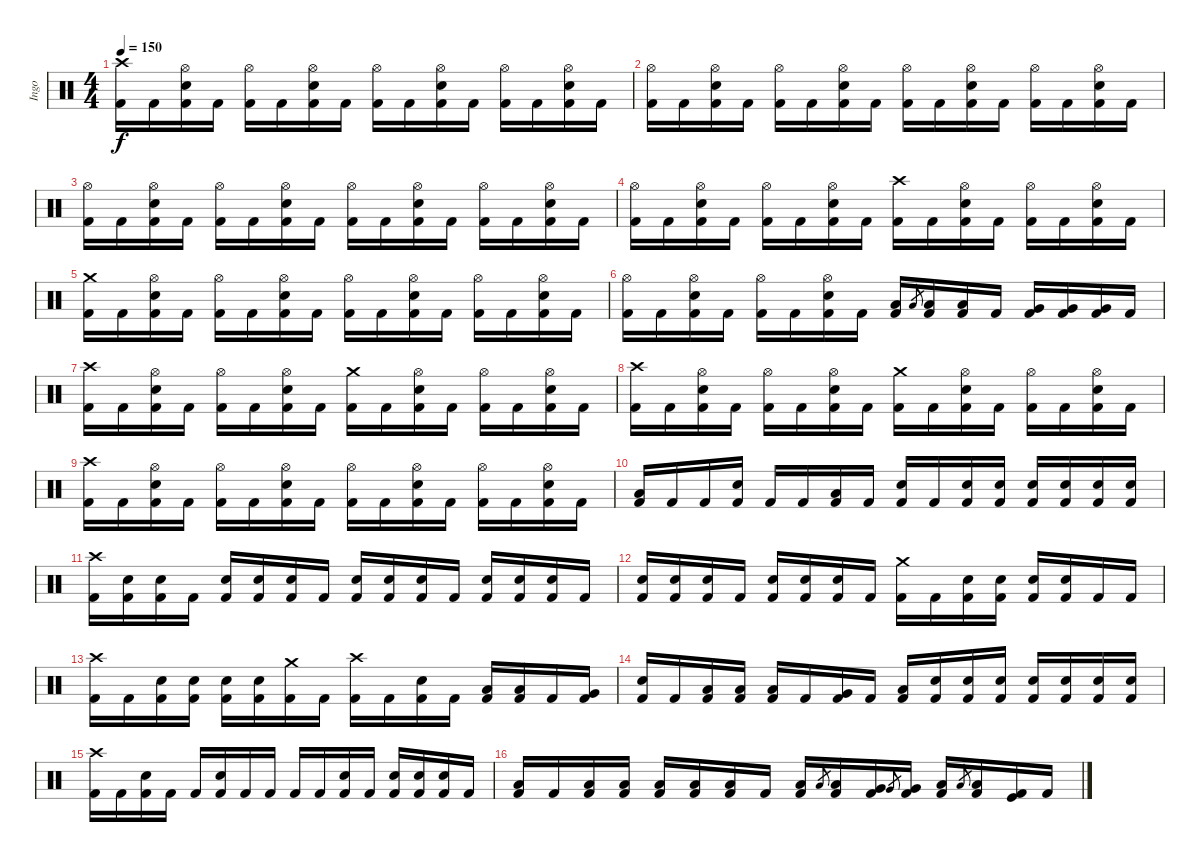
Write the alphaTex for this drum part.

\track ("Ingo" "Ingo") {instrument percussion}
\staff {score}
\articulation defaults
\ts (4 4)
\tempo 150
\clef neutral
\ks c
("Crash high (hit)" "Kick (hit) 2").16{dy f} "Kick (hit) 2".16 ("Hi-Hat (open)" "Electric Snare (hit)" "Kick (hit) 2").16 "Kick (hit) 2".16 ("Hi-Hat (open)" "Kick (hit) 2").16 "Kick (hit) 2".16 ("Hi-Hat (open)" "Electric Snare (hit)" "Kick (hit) 2").16 "Kick (hit) 2".16 ("Hi-Hat (open)" "Kick (hit) 2").16 "Kick (hit) 2".16 ("Hi-Hat (open)" "Electric Snare (hit)" "Kick (hit) 2").16 "Kick (hit) 2".16 ("Hi-Hat (open)" "Kick (hit) 2").16 "Kick (hit) 2".16 ("Hi-Hat (open)" "Electric Snare (hit)" "Kick (hit) 2").16 "Kick (hit) 2".16 |
("Hi-Hat (open)" "Kick (hit) 2").16 "Kick (hit) 2".16 ("Hi-Hat (open)" "Electric Snare (hit)" "Kick (hit) 2").16 "Kick (hit) 2".16 ("Hi-Hat (open)" "Kick (hit) 2").16 "Kick (hit) 2".16 ("Hi-Hat (open)" "Electric Snare (hit)" "Kick (hit) 2").16 "Kick (hit) 2".16 ("Hi-Hat (open)" "Kick (hit) 2").16 "Kick (hit) 2".16 ("Hi-Hat (open)" "Electric Snare (hit)" "Kick (hit) 2").16 "Kick (hit) 2".16 ("Hi-Hat (open)" "Kick (hit) 2").16 "Kick (hit) 2".16 ("Hi-Hat (open)" "Electric Snare (hit)" "Kick (hit) 2").16 "Kick (hit) 2".16 |
("Hi-Hat (open)" "Kick (hit) 2").16 "Kick (hit) 2".16 ("Hi-Hat (open)" "Electric Snare (hit)" "Kick (hit) 2").16 "Kick (hit) 2".16 ("Hi-Hat (open)" "Kick (hit) 2").16 "Kick (hit) 2".16 ("Hi-Hat (open)" "Electric Snare (hit)" "Kick (hit) 2").16 "Kick (hit) 2".16 ("Hi-Hat (open)" "Kick (hit) 2").16 "Kick (hit) 2".16 ("Hi-Hat (open)" "Electric Snare (hit)" "Kick (hit) 2").16 "Kick (hit) 2".16 ("Hi-Hat (open)" "Kick (hit) 2").16 "Kick (hit) 2".16 ("Hi-Hat (open)" "Electric Snare (hit)" "Kick (hit) 2").16 "Kick (hit) 2".16 |
("Hi-Hat (open)" "Kick (hit) 2").16 "Kick (hit) 2".16 ("Hi-Hat (open)" "Electric Snare (hit)" "Kick (hit) 2").16 "Kick (hit) 2".16 ("Hi-Hat (open)" "Kick (hit) 2").16 "Kick (hit) 2".16 ("Hi-Hat (open)" "Electric Snare (hit)" "Kick (hit) 2").16 "Kick (hit) 2".16 ("Crash high (hit)" "Kick (hit) 2").16 "Kick (hit) 2".16 ("Hi-Hat (open)" "Electric Snare (hit)" "Kick (hit) 2").16 "Kick (hit) 2".16 ("Hi-Hat (open)" "Kick (hit) 2").16 "Kick (hit) 2".16 ("Hi-Hat (open)" "Electric Snare (hit)" "Kick (hit) 2").16 "Kick (hit) 2".16 |
("Crash medium (hit)" "Kick (hit) 2").16 "Kick (hit) 2".16 ("Hi-Hat (open)" "Electric Snare (hit)" "Kick (hit) 2").16 "Kick (hit) 2".16 ("Hi-Hat (open)" "Kick (hit) 2").16 "Kick (hit) 2".16 ("Hi-Hat (open)" "Electric Snare (hit)" "Kick (hit) 2").16 "Kick (hit) 2".16 ("Hi-Hat (open)" "Kick (hit) 2").16 "Kick (hit) 2".16 ("Hi-Hat (open)" "Electric Snare (hit)" "Kick (hit) 2").16 "Kick (hit) 2".16 ("Hi-Hat (open)" "Kick (hit) 2").16 "Kick (hit) 2".16 ("Hi-Hat (open)" "Electric Snare (hit)" "Kick (hit) 2").16 "Kick (hit) 2".16 |
("Hi-Hat (open)" "Kick (hit) 2").16 "Kick (hit) 2".16 ("Hi-Hat (open)" "Electric Snare (hit)" "Kick (hit) 2").16 "Kick (hit) 2".16 ("Hi-Hat (open)" "Kick (hit) 2").16 "Kick (hit) 2".16 ("Hi-Hat (open)" "Electric Snare (hit)" "Kick (hit) 2").16 "Kick (hit) 2".16 ("Low Tom (hit)" "Kick (hit) 2").16 "Low Tom (hit)".8{gr} ("Low Tom (hit)" "Kick (hit) 2").16 ("Low Tom (hit)" "Kick (hit) 2").16 "Kick (hit) 2".16 ("Very Low Tom (hit)" "Kick (hit) 2").16 ("Very Low Tom (hit)" "Kick (hit) 2").16 ("Very Low Tom (hit)" "Kick (hit) 2").16 "Kick (hit) 2".16 |
("Crash high (hit)" "Kick (hit) 2").16 "Kick (hit) 2".16 ("Hi-Hat (open)" "Electric Snare (hit)" "Kick (hit) 2").16 "Kick (hit) 2".16 ("Hi-Hat (open)" "Kick (hit) 2").16 "Kick (hit) 2".16 ("Hi-Hat (open)" "Electric Snare (hit)" "Kick (hit) 2").16 "Kick (hit) 2".16 ("Crash medium (hit)" "Kick (hit) 2").16 "Kick (hit) 2".16 ("Hi-Hat (open)" "Electric Snare (hit)" "Kick (hit) 2").16 "Kick (hit) 2".16 ("Hi-Hat (open)" "Kick (hit) 2").16 "Kick (hit) 2".16 ("Hi-Hat (open)" "Electric Snare (hit)" "Kick (hit) 2").16 "Kick (hit) 2".16 |
("Crash high (hit)" "Kick (hit) 2").16 "Kick (hit) 2".16 ("Hi-Hat (open)" "Electric Snare (hit)" "Kick (hit) 2").16 "Kick (hit) 2".16 ("Hi-Hat (open)" "Kick (hit) 2").16 "Kick (hit) 2".16 ("Hi-Hat (open)" "Electric Snare (hit)" "Kick (hit) 2").16 "Kick (hit) 2".16 ("Crash medium (hit)" "Kick (hit) 2").16 "Kick (hit) 2".16 ("Hi-Hat (open)" "Electric Snare (hit)" "Kick (hit) 2").16 "Kick (hit) 2".16 ("Hi-Hat (open)" "Kick (hit) 2").16 "Kick (hit) 2".16 ("Hi-Hat (open)" "Electric Snare (hit)" "Kick (hit) 2").16 "Kick (hit) 2".16 |
("Crash high (hit)" "Kick (hit) 2").16 "Kick (hit) 2".16 ("Hi-Hat (open)" "Electric Snare (hit)" "Kick (hit) 2").16 "Kick (hit) 2".16 ("Hi-Hat (open)" "Kick (hit) 2").16 "Kick (hit) 2".16 ("Hi-Hat (open)" "Electric Snare (hit)" "Kick (hit) 2").16 "Kick (hit) 2".16 ("Hi-Hat (open)" "Kick (hit) 2").16 "Kick (hit) 2".16 ("Hi-Hat (open)" "Electric Snare (hit)" "Kick (hit) 2").16 "Kick (hit) 2".16 ("Hi-Hat (open)" "Kick (hit) 2").16 "Kick (hit) 2".16 ("Hi-Hat (open)" "Electric Snare (hit)" "Kick (hit) 2").16 "Kick (hit) 2".16 |
("Low Floor Tom (hit)" "Kick (hit) 2").16 "Kick (hit) 2".16 "Kick (hit) 2".16 ("Electric Snare (hit)" "Kick (hit) 2").16 "Kick (hit) 2".16 "Kick (hit) 2".16 ("Low Floor Tom (hit)" "Kick (hit) 2").16 "Kick (hit) 2".16 ("Electric Snare (hit)" "Kick (hit) 2").16 "Kick (hit) 2".16 ("Electric Snare (hit)" "Kick (hit) 2").16 ("Electric Snare (hit)" "Kick (hit) 2").16 ("Electric Snare (hit)" "Kick (hit) 2").16 ("Electric Snare (hit)" "Kick (hit) 2").16 ("Electric Snare (hit)" "Kick (hit) 2").16 ("Electric Snare (hit)" "Kick (hit) 2").16 |
("Crash high (hit)" "Kick (hit) 2").16 ("Electric Snare (hit)" "Kick (hit) 2").16 ("Electric Snare (hit)" "Kick (hit) 2").16 "Kick (hit) 2".16 ("Electric Snare (hit)" "Kick (hit) 2").16 ("Electric Snare (hit)" "Kick (hit) 2").16 ("Electric Snare (hit)" "Kick (hit) 2").16 "Kick (hit) 2".16 ("Electric Snare (hit)" "Kick (hit) 2").16 ("Electric Snare (hit)" "Kick (hit) 2").16 ("Electric Snare (hit)" "Kick (hit) 2").16 "Kick (hit) 2".16 ("Electric Snare (hit)" "Kick (hit) 2").16 ("Electric Snare (hit)" "Kick (hit) 2").16 ("Electric Snare (hit)" "Kick (hit) 2").16 "Kick (hit) 2".16 |
("Electric Snare (hit)" "Kick (hit) 2").16 ("Electric Snare (hit)" "Kick (hit) 2").16 ("Electric Snare (hit)" "Kick (hit) 2").16 "Kick (hit) 2".16 ("Electric Snare (hit)" "Kick (hit) 2").16 ("Electric Snare (hit)" "Kick (hit) 2").16 ("Electric Snare (hit)" "Kick (hit) 2").16 "Kick (hit) 2".16 ("Crash medium (hit)" "Kick (hit) 2").16 "Kick (hit) 2".16 ("Electric Snare (hit)" "Kick (hit) 2").16 ("Electric Snare (hit)" "Kick (hit) 2").16 ("Electric Snare (hit)" "Kick (hit) 2").16 ("Electric Snare (hit)" "Kick (hit) 2").16 "Kick (hit) 2".16 "Kick (hit) 2".16 |
("Crash high (hit)" "Kick (hit) 2").16 "Kick (hit) 2".16 ("Electric Snare (hit)" "Kick (hit) 2").16 ("Electric Snare (hit)" "Kick (hit) 2").16 ("Electric Snare (hit)" "Kick (hit) 2").16 ("Electric Snare (hit)" "Kick (hit) 2").16 ("Crash medium (hit)" "Kick (hit) 2").16 "Kick (hit) 2".16 ("Crash high (hit)" "Kick (hit) 2").16 "Kick (hit) 2".16 ("Electric Snare (hit)" "Kick (hit) 2").16 "Kick (hit) 2".16 ("Low Tom (hit)" "Kick (hit) 2").16 ("Low Tom (hit)" "Kick (hit) 2").16 "Kick (hit) 2".16 ("Very Low Tom (hit)" "Kick (hit) 2").16 |
("Electric Snare (hit)" "Kick (hit) 2").16 "Kick (hit) 2".16 ("Low Tom (hit)" "Kick (hit) 2").16 ("Low Tom (hit)" "Kick (hit) 2").16 ("Low Tom (hit)" "Kick (hit) 2").16 "Kick (hit) 2".16 ("Very Low Tom (hit)" "Kick (hit) 2").16 "Kick (hit) 2".16 ("Low Tom (hit)" "Kick (hit) 2").16 ("Electric Snare (hit)" "Kick (hit) 2").16 ("Electric Snare (hit)" "Kick (hit) 2").16 ("Electric Snare (hit)" "Kick (hit) 2").16 ("Electric Snare (hit)" "Kick (hit) 2").16 ("Electric Snare (hit)" "Kick (hit) 2").16 ("Electric Snare (hit)" "Kick (hit) 2").16 ("Electric Snare (hit)" "Kick (hit) 2").16 |
("Crash high (hit)" "Kick (hit) 2").16 "Kick (hit) 2".16 ("Electric Snare (hit)" "Kick (hit) 2").16 "Kick (hit) 2".16 "Kick (hit) 2".16 ("Electric Snare (hit)" "Kick (hit) 2").16 "Kick (hit) 2".16 "Kick (hit) 2".16 "Kick (hit) 2".16 "Kick (hit) 2".16 ("Electric Snare (hit)" "Kick (hit) 2").16 "Kick (hit) 2".16 ("Electric Snare (hit)" "Kick (hit) 2").16 ("Electric Snare (hit)" "Kick (hit) 2").16 ("Electric Snare (hit)" "Kick (hit) 2").16 "Kick (hit) 2".16 |
("Low Tom (hit)" "Kick (hit) 2").16 "Kick (hit) 2".16 ("Low Tom (hit)" "Kick (hit) 2").16 ("Low Tom (hit)" "Kick (hit) 2").16 ("Low Tom (hit)" "Kick (hit) 2").16 ("Low Tom (hit)" "Kick (hit) 2").16 ("Low Tom (hit)" "Kick (hit) 2").16 "Kick (hit) 2".16 ("Low Tom (hit)" "Kick (hit) 2").16 "Low Tom (hit)".8{gr} ("Low Tom (hit)" "Kick (hit) 2").16 ("Very Low Tom (hit)" "Kick (hit) 2").16 "Very Low Tom (hit)".8{gr} ("Very Low Tom (hit)" "Kick (hit) 2").16 ("Low Floor Tom (hit)" "Kick (hit) 2").16 "Low Floor Tom (hit)".8{gr} ("Low Floor Tom (hit)" "Kick (hit) 2").16 ("Kick (hit)" "Kick (hit) 2").16 "Kick (hit) 2".16
